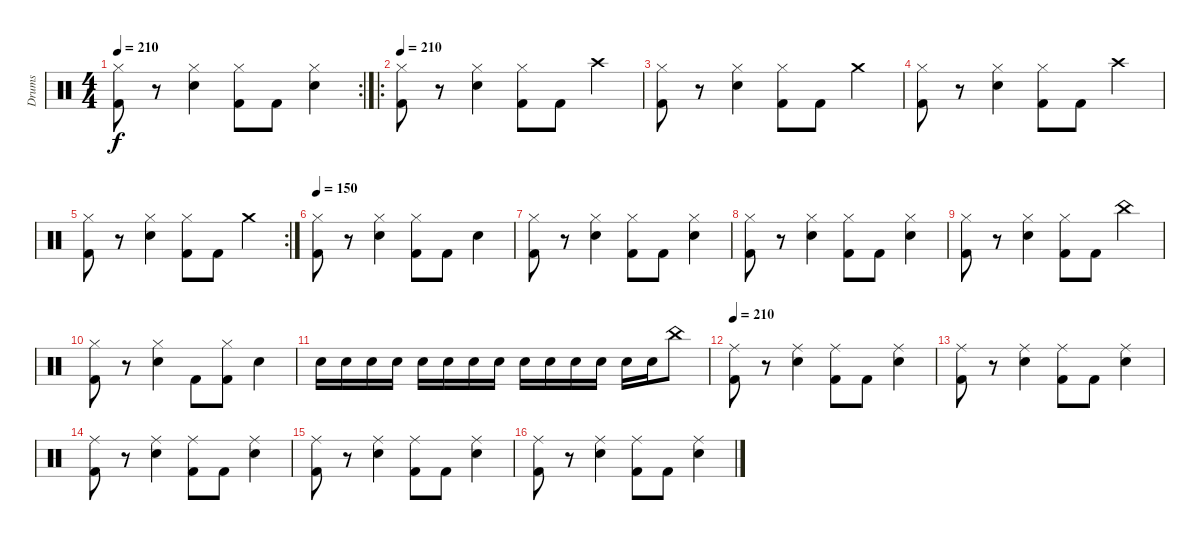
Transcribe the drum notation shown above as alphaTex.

\track ("Drums" "Drums") {instrument percussion}
\staff {score}
\articulation defaults
\rc 2
\ts (4 4)
\tempo 210
\clef neutral
\ks c
("Kick (hit) 2" "Hi-Hat (closed)").8{dy f} r.8 ("Snare (hit) 2" "Hi-Hat (closed)").4 ("Kick (hit) 2" "Hi-Hat (closed)").8 "Kick (hit) 2".8 ("Snare (hit) 2" "Hi-Hat (closed)").4 |
\ro
\tempo 210
("Kick (hit) 2" "Hi-Hat (closed)").8 r.8 ("Snare (hit) 2" "Hi-Hat (closed)").4 ("Kick (hit) 2" "Hi-Hat (closed)").8 "Kick (hit) 2".8 "Crash high (hit)".4 |
("Kick (hit) 2" "Hi-Hat (closed)").8 r.8 ("Snare (hit) 2" "Hi-Hat (closed)").4 ("Kick (hit) 2" "Hi-Hat (closed)").8 "Kick (hit) 2".8 "Crash medium (hit)".4 |
("Kick (hit) 2" "Hi-Hat (closed)").8 r.8 ("Snare (hit) 2" "Hi-Hat (closed)").4 ("Kick (hit) 2" "Hi-Hat (closed)").8 "Kick (hit) 2".8 "Crash high (hit)".4 |
\rc 2
("Kick (hit) 2" "Hi-Hat (closed)").8 r.8 ("Snare (hit) 2" "Hi-Hat (closed)").4 ("Kick (hit) 2" "Hi-Hat (closed)").8 "Kick (hit) 2".8 "Crash medium (hit)".4 |
\tempo 150
("Kick (hit) 2" "Hi-Hat (closed)").8 r.8 ("Snare (hit) 2" "Hi-Hat (closed)").4 ("Kick (hit) 2" "Hi-Hat (closed)").8 "Kick (hit) 2".8 "Snare (hit) 2".4 |
("Kick (hit) 2" "Hi-Hat (closed)").8 r.8 ("Snare (hit) 2" "Hi-Hat (closed)").4 ("Kick (hit) 2" "Hi-Hat (closed)").8 "Kick (hit) 2".8 ("Snare (hit) 2" "Hi-Hat (closed)").4 |
("Kick (hit) 2" "Hi-Hat (closed)").8 r.8 ("Snare (hit) 2" "Hi-Hat (closed)").4 ("Kick (hit) 2" "Hi-Hat (closed)").8 "Kick (hit) 2".8 ("Snare (hit) 2" "Hi-Hat (closed)").4 |
("Kick (hit) 2" "Hi-Hat (closed)").8 r.8 ("Snare (hit) 2" "Hi-Hat (closed)").4 ("Kick (hit) 2" "Hi-Hat (closed)").8 "Kick (hit) 2".8 "China (hit)".4 |
("Kick (hit) 2" "Hi-Hat (closed)").8 r.8 ("Snare (hit) 2" "Hi-Hat (closed)").4 "Kick (hit) 2".8 ("Kick (hit) 2" "Hi-Hat (closed)").8 "Snare (hit) 2".4 |
"Snare (hit) 2".16 "Snare (hit) 2".16 "Snare (hit) 2".16 "Snare (hit) 2".16 "Snare (hit) 2".16 "Snare (hit) 2".16 "Snare (hit) 2".16 "Snare (hit) 2".16 "Snare (hit) 2".16 "Snare (hit) 2".16 "Snare (hit) 2".16 "Snare (hit) 2".16 "Snare (hit) 2".16 "Snare (hit) 2".16 "China (hit)".8 |
\tempo 210
("Kick (hit) 2" "Ride (middle)").8{volume 11} r.8 ("Snare (hit) 2" "Ride (middle)").4 ("Kick (hit) 2" "Ride (middle)").8 "Kick (hit) 2".8 ("Snare (hit) 2" "Ride (middle)").4 |
("Kick (hit) 2" "Ride (middle)").8 r.8 ("Snare (hit) 2" "Ride (middle)").4 ("Kick (hit) 2" "Ride (middle)").8 "Kick (hit) 2".8 ("Snare (hit) 2" "Ride (middle)").4 |
("Kick (hit) 2" "Ride (middle)").8 r.8 ("Snare (hit) 2" "Ride (middle)").4 ("Kick (hit) 2" "Ride (middle)").8 "Kick (hit) 2".8 ("Snare (hit) 2" "Ride (middle)").4 |
("Kick (hit) 2" "Ride (middle)").8 r.8 ("Snare (hit) 2" "Ride (middle)").4 ("Kick (hit) 2" "Ride (middle)").8 "Kick (hit) 2".8 ("Snare (hit) 2" "Ride (middle)").4 |
("Kick (hit) 2" "Ride (middle)").8 r.8 ("Snare (hit) 2" "Ride (middle)").4 ("Kick (hit) 2" "Ride (middle)").8 "Kick (hit) 2".8 ("Snare (hit) 2" "Ride (middle)").4
